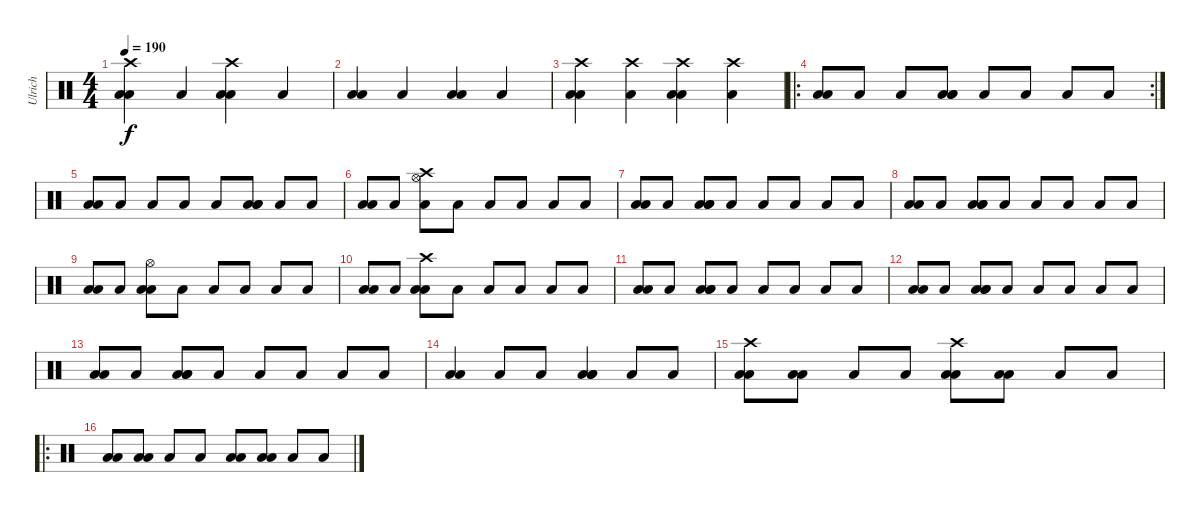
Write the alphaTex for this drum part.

\track ("Ulrich" "Ulrich") {instrument percussion}
\staff {score}
\articulation defaults
\ts (4 4)
\tempo 190
\clef neutral
\ks c
("Low Tom (hit)" "Low Tom (hit)" "Crash high (hit)").4{dy f} "Low Tom (hit)".4 ("Low Tom (hit)" "Low Tom (hit)" "Crash high (hit)").4 "Low Tom (hit)".4 |
("Low Tom (hit)" "Low Tom (hit)").4 "Low Tom (hit)".4 ("Low Tom (hit)" "Low Tom (hit)").4 "Low Tom (hit)".4 |
("Low Tom (hit)" "Low Tom (hit)" "Crash high (hit)").4 ("Low Tom (hit)" "Crash high (hit)").4 ("Low Tom (hit)" "Low Tom (hit)" "Crash high (hit)").4 ("Low Tom (hit)" "Crash high (hit)").4 |
\ro
\rc 2
("Low Tom (hit)" "Low Tom (hit)").8 "Low Tom (hit)".8 "Low Tom (hit)".8 ("Low Tom (hit)" "Low Tom (hit)" "Low Tom (hit)").8 "Low Tom (hit)".8 "Low Tom (hit)".8 "Low Tom (hit)".8 "Low Tom (hit)".8 |
("Low Tom (hit)" "Low Tom (hit)").8 "Low Tom (hit)".8 "Low Tom (hit)".8 "Low Tom (hit)".8 "Low Tom (hit)".8 ("Low Tom (hit)" "Low Tom (hit)" "Low Tom (hit)").8 "Low Tom (hit)".8 "Low Tom (hit)".8 |
("Low Tom (hit)" "Low Tom (hit)").8 "Low Tom (hit)".8 ("Low Tom (hit)" "Hi-Hat (open)" "Crash high (hit)").8 "Low Tom (hit)".8 "Low Tom (hit)".8 "Low Tom (hit)".8 "Low Tom (hit)".8 "Low Tom (hit)".8 |
("Low Tom (hit)" "Low Tom (hit)").8 "Low Tom (hit)".8 ("Low Tom (hit)" "Low Tom (hit)" "Low Tom (hit)").8 "Low Tom (hit)".8 "Low Tom (hit)".8 "Low Tom (hit)".8 "Low Tom (hit)".8 "Low Tom (hit)".8 |
("Low Tom (hit)" "Low Tom (hit)").8 "Low Tom (hit)".8 ("Low Tom (hit)" "Low Tom (hit)" "Low Tom (hit)").8 "Low Tom (hit)".8 "Low Tom (hit)".8 "Low Tom (hit)".8 "Low Tom (hit)".8 "Low Tom (hit)".8 |
("Low Tom (hit)" "Low Tom (hit)").8 "Low Tom (hit)".8 ("Low Tom (hit)" "Low Tom (hit)" "Hi-Hat (open)").8 "Low Tom (hit)".8 "Low Tom (hit)".8 "Low Tom (hit)".8 "Low Tom (hit)".8 "Low Tom (hit)".8 |
("Low Tom (hit)" "Low Tom (hit)").8 "Low Tom (hit)".8 ("Low Tom (hit)" "Low Tom (hit)" "Crash high (hit)").8 "Low Tom (hit)".8 "Low Tom (hit)".8 "Low Tom (hit)".8 "Low Tom (hit)".8 "Low Tom (hit)".8 |
("Low Tom (hit)" "Low Tom (hit)").8 "Low Tom (hit)".8 ("Low Tom (hit)" "Low Tom (hit)" "Low Tom (hit)").8 "Low Tom (hit)".8 "Low Tom (hit)".8 "Low Tom (hit)".8 "Low Tom (hit)".8 "Low Tom (hit)".8 |
("Low Tom (hit)" "Low Tom (hit)").8 "Low Tom (hit)".8 ("Low Tom (hit)" "Low Tom (hit)" "Low Tom (hit)").8 "Low Tom (hit)".8 "Low Tom (hit)".8 "Low Tom (hit)".8 "Low Tom (hit)".8 "Low Tom (hit)".8 |
("Low Tom (hit)" "Low Tom (hit)").8 "Low Tom (hit)".8 ("Low Tom (hit)" "Low Tom (hit)" "Low Tom (hit)").8 "Low Tom (hit)".8 "Low Tom (hit)".8 "Low Tom (hit)".8 "Low Tom (hit)".8 "Low Tom (hit)".8 |
("Low Tom (hit)" "Low Tom (hit)").4 "Low Tom (hit)".8 "Low Tom (hit)".8 ("Low Tom (hit)" "Low Tom (hit)" "Low Tom (hit)").4 "Low Tom (hit)".8 "Low Tom (hit)".8 |
("Low Tom (hit)" "Low Tom (hit)" "Crash high (hit)").8 ("Low Tom (hit)" "Low Tom (hit)").8 "Low Tom (hit)".8 "Low Tom (hit)".8 ("Low Tom (hit)" "Low Tom (hit)" "Crash high (hit)").8 ("Low Tom (hit)" "Low Tom (hit)").8 "Low Tom (hit)".8 "Low Tom (hit)".8 |
\ro
("Low Tom (hit)" "Low Tom (hit)").8 ("Low Tom (hit)" "Low Tom (hit)").8 "Low Tom (hit)".8 "Low Tom (hit)".8 ("Low Tom (hit)" "Low Tom (hit)").8 ("Low Tom (hit)" "Low Tom (hit)").8 "Low Tom (hit)".8 "Low Tom (hit)".8
